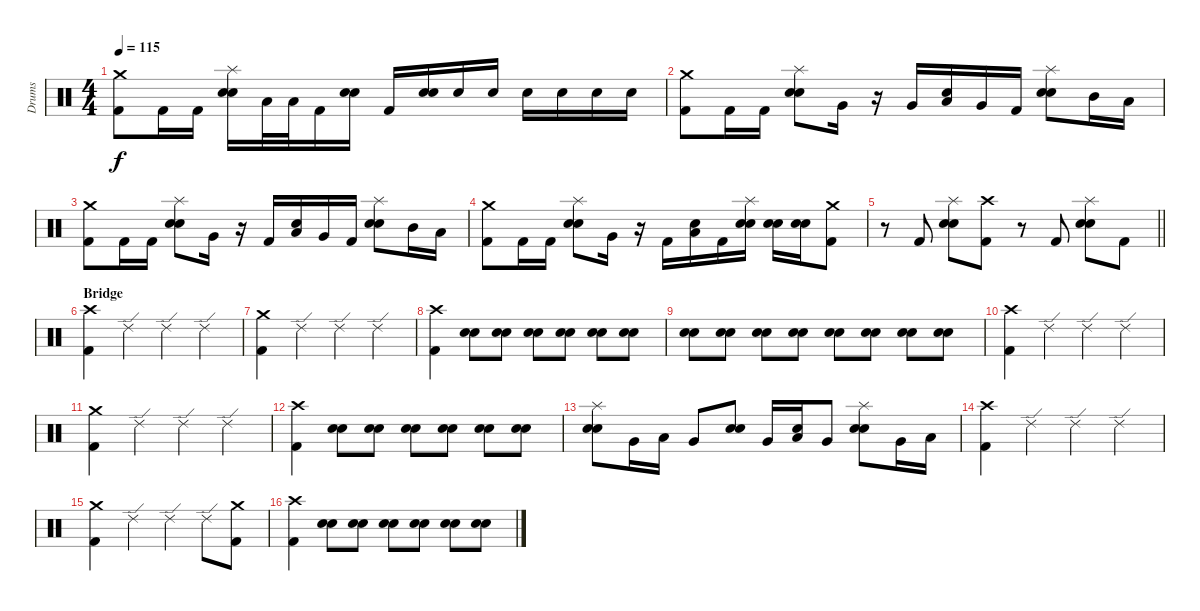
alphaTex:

\track ("Drums" "Drums") {instrument percussion}
\staff {score}
\articulation defaults
\ts (4 4)
\tempo 115
\clef neutral
\ks c
("Crash medium (hit)" "Kick (hit) 2").8{dy f} "Kick (hit) 2".16 "Kick (hit) 2".16 ("Splash (hit)" "Electric Snare (hit)" "Snare (hit) 2").16 "Low Tom (hit)".32 "Low Tom (hit)".32 "Kick (hit) 2".16 ("Electric Snare (hit)" "Snare (hit) 2").16 "Kick (hit) 2".16 ("Electric Snare (hit)" "Snare (hit) 2").16 "Electric Snare (hit)".16 "Electric Snare (hit)".16 "Electric Snare (hit)".16 "Electric Snare (hit)".16 "Electric Snare (hit)".16 "Electric Snare (hit)".16 |
("Crash medium (hit)" "Kick (hit) 2").8 "Kick (hit) 2".16 "Kick (hit) 2".16 ("Splash (hit)" "Electric Snare (hit)" "Snare (hit) 2").8 "Very Low Tom (hit)".16 r.16 "Very Low Tom (hit)".16 ("Electric Snare (hit)" "Low Tom (hit)").16 "Very Low Tom (hit)".16 "Kick (hit) 2".16 ("Splash (hit)" "Electric Snare (hit)" "Snare (hit) 2").8 "Mid Tom (hit)".16 "Low Tom (hit)".16 |
("Crash medium (hit)" "Kick (hit) 2").8 "Kick (hit) 2".16 "Kick (hit) 2".16 ("Splash (hit)" "Electric Snare (hit)" "Snare (hit) 2").8 "Very Low Tom (hit)".16 r.16 "Kick (hit) 2".16 ("Electric Snare (hit)" "Low Tom (hit)").16 "Very Low Tom (hit)".16 "Kick (hit) 2".16 ("Splash (hit)" "Electric Snare (hit)" "Snare (hit) 2").8 "Mid Tom (hit)".16 "Low Tom (hit)".16 |
("Crash medium (hit)" "Kick (hit) 2").8 "Kick (hit) 2".16 "Kick (hit) 2".16 ("Splash (hit)" "Electric Snare (hit)" "Snare (hit) 2").8 "Very Low Tom (hit)".16 r.16 "Kick (hit) 2".16 ("Electric Snare (hit)" "Low Tom (hit)").16 "Kick (hit) 2".16 ("Splash (hit)" "Electric Snare (hit)" "Snare (hit) 2").16 ("Electric Snare (hit)" "Snare (hit) 2").16 ("Electric Snare (hit)" "Snare (hit) 2").16 ("Crash medium (hit)" "Kick (hit) 2").8 |
\barLineRight lightlight
r.8 "Kick (hit) 2".8 ("Splash (hit)" "Electric Snare (hit)" "Snare (hit) 2").8 ("Crash high (hit)" "Kick (hit) 2").8 r.8 "Kick (hit) 2".8 ("Splash (hit)" "Electric Snare (hit)" "Snare (hit) 2").8 "Kick (hit) 2".8 |
\section ("" "Bridge")
("Crash high (hit)" "Kick (hit) 2").4 "Ride (edge) 2".4 "Ride (edge) 2".4 "Ride (edge) 2".4 |
("Crash medium (hit)" "Kick (hit) 2").4 "Ride (edge) 2".4 "Ride (edge) 2".4 "Ride (edge) 2".4 |
("Crash high (hit)" "Kick (hit) 2").4 ("Electric Snare (hit)" "Snare (hit) 2").8 ("Electric Snare (hit)" "Snare (hit) 2").8 ("Electric Snare (hit)" "Snare (hit) 2").8 ("Electric Snare (hit)" "Snare (hit) 2").8 ("Electric Snare (hit)" "Snare (hit) 2").8 ("Electric Snare (hit)" "Snare (hit) 2").8 |
("Electric Snare (hit)" "Snare (hit) 2").8 ("Electric Snare (hit)" "Snare (hit) 2").8 ("Electric Snare (hit)" "Snare (hit) 2").8 ("Electric Snare (hit)" "Snare (hit) 2").8 ("Electric Snare (hit)" "Snare (hit) 2").8 ("Electric Snare (hit)" "Snare (hit) 2").8 ("Electric Snare (hit)" "Snare (hit) 2").8 ("Electric Snare (hit)" "Snare (hit) 2").8 |
("Crash high (hit)" "Kick (hit) 2").4 "Ride (edge) 2".4 "Ride (edge) 2".4 "Ride (edge) 2".4 |
("Crash medium (hit)" "Kick (hit) 2").4 "Ride (edge) 2".4 "Ride (edge) 2".4 "Ride (edge) 2".4 |
("Crash high (hit)" "Kick (hit) 2").4 ("Electric Snare (hit)" "Snare (hit) 2").8 ("Electric Snare (hit)" "Snare (hit) 2").8 ("Electric Snare (hit)" "Snare (hit) 2").8 ("Electric Snare (hit)" "Snare (hit) 2").8 ("Electric Snare (hit)" "Snare (hit) 2").8 ("Electric Snare (hit)" "Snare (hit) 2").8 |
("Splash (hit)" "Electric Snare (hit)" "Snare (hit) 2").8 "Very Low Tom (hit)".16 "Low Tom (hit)".16 "Very Low Tom (hit)".8 ("Electric Snare (hit)" "Snare (hit) 2").8 "Very Low Tom (hit)".16 ("Electric Snare (hit)" "Low Tom (hit)").16 "Very Low Tom (hit)".8 ("Splash (hit)" "Electric Snare (hit)" "Snare (hit) 2").8 "Very Low Tom (hit)".16 "Low Tom (hit)".16 |
("Crash high (hit)" "Kick (hit) 2").4 "Ride (edge) 2".4 "Ride (edge) 2".4 "Ride (edge) 2".4 |
("Crash medium (hit)" "Kick (hit) 2").4 "Ride (edge) 2".4 "Ride (edge) 2".4 "Ride (edge) 2".8 ("Crash medium (hit)" "Kick (hit) 2").8 |
("Crash high (hit)" "Kick (hit) 2").4 ("Electric Snare (hit)" "Snare (hit) 2").8 ("Electric Snare (hit)" "Snare (hit) 2").8 ("Electric Snare (hit)" "Snare (hit) 2").8 ("Electric Snare (hit)" "Snare (hit) 2").8 ("Electric Snare (hit)" "Snare (hit) 2").8 ("Electric Snare (hit)" "Snare (hit) 2").8
